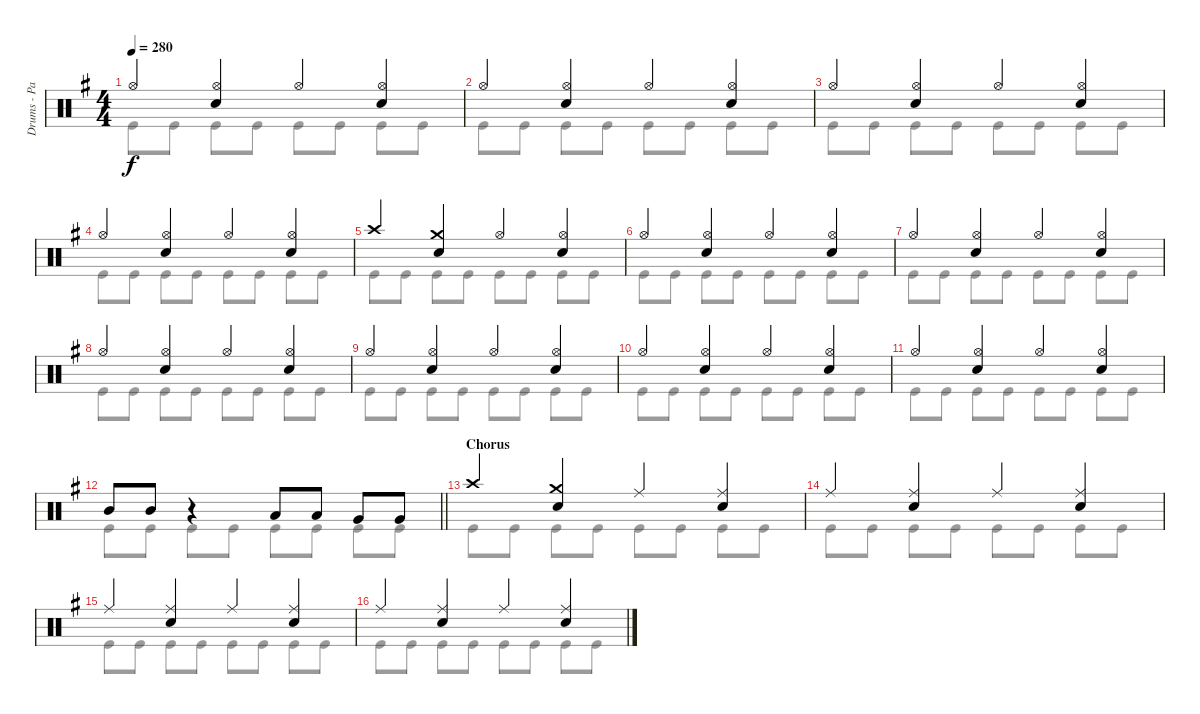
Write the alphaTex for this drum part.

\track ("Drums - Patrick Johansson" "Drums - Pa") {instrument percussion}
\staff {score}
\articulation defaults
\voice
\ts (4 4)
\tempo 280
\clef neutral
\ks eminor "Hi-Hat (open)".4{dy f}
("Hi-Hat (open)" "Snare (hit) 2").4 "Hi-Hat (open)".4 ("Hi-Hat (open)" "Snare (hit) 2").4 |
"Hi-Hat (open)".4 ("Hi-Hat (open)" "Snare (hit) 2").4 "Hi-Hat (open)".4 ("Hi-Hat (open)" "Snare (hit) 2").4 |
"Hi-Hat (open)".4 ("Hi-Hat (open)" "Snare (hit) 2").4 "Hi-Hat (open)".4 ("Hi-Hat (open)" "Snare (hit) 2").4 |
"Hi-Hat (open)".4 ("Hi-Hat (open)" "Snare (hit) 2").4 "Hi-Hat (open)".4 ("Hi-Hat (open)" "Snare (hit) 2").4 |
"Crash high (hit)".4 ("Crash medium (hit)" "Snare (hit) 2").4 "Hi-Hat (open)".4 ("Hi-Hat (open)" "Snare (hit) 2").4 |
"Hi-Hat (open)".4 ("Hi-Hat (open)" "Snare (hit) 2").4 "Hi-Hat (open)".4 ("Hi-Hat (open)" "Snare (hit) 2").4 |
"Hi-Hat (open)".4 ("Hi-Hat (open)" "Snare (hit) 2").4 "Hi-Hat (open)".4 ("Hi-Hat (open)" "Snare (hit) 2").4 |
"Hi-Hat (open)".4 ("Hi-Hat (open)" "Snare (hit) 2").4 "Hi-Hat (open)".4 ("Hi-Hat (open)" "Snare (hit) 2").4 |
"Hi-Hat (open)".4 ("Hi-Hat (open)" "Snare (hit) 2").4 "Hi-Hat (open)".4 ("Hi-Hat (open)" "Snare (hit) 2").4 |
"Hi-Hat (open)".4 ("Hi-Hat (open)" "Snare (hit) 2").4 "Hi-Hat (open)".4 ("Hi-Hat (open)" "Snare (hit) 2").4 |
"Hi-Hat (open)".4 ("Hi-Hat (open)" "Snare (hit) 2").4 "Hi-Hat (open)".4 ("Hi-Hat (open)" "Snare (hit) 2").4 |
\barLineRight lightlight "Mid Tom (hit)".8 "Mid Tom (hit)".8
r.4 "Low Tom (hit)".8 "Low Tom (hit)".8 "Very Low Tom (hit)".8 "Very Low Tom (hit)".8 |
\section ("" "Chorus")
"Crash high (hit)".4 ("Crash medium (hit)" "Snare (hit) 2").4 "Ride (middle)".4 ("Ride (middle)" "Snare (hit) 2").4 |
"Ride (middle)".4 ("Ride (middle)" "Snare (hit) 2").4 "Ride (middle)".4 ("Ride (middle)" "Snare (hit) 2").4 |
"Ride (middle)".4 ("Ride (middle)" "Snare (hit) 2").4 "Ride (middle)".4 ("Ride (middle)" "Snare (hit) 2").4 |
"Ride (middle)".4 ("Ride (middle)" "Snare (hit) 2").4 "Ride (middle)".4 ("Ride (middle)" "Snare (hit) 2").4
\voice
\clef neutral
\ottava regular
\simile none
\ks eminor "Kick (hit)".8{dy f} "Kick (hit)".8 "Kick (hit)".8 "Kick (hit)".8 "Kick (hit)".8 "Kick (hit)".8 "Kick (hit)".8 "Kick (hit)".8
|
"Kick (hit)".8 "Kick (hit)".8 "Kick (hit)".8 "Kick (hit)".8 "Kick (hit)".8 "Kick (hit)".8 "Kick (hit)".8 "Kick (hit)".8 |
"Kick (hit)".8 "Kick (hit)".8 "Kick (hit)".8 "Kick (hit)".8 "Kick (hit)".8 "Kick (hit)".8 "Kick (hit)".8 "Kick (hit)".8 |
"Kick (hit)".8 "Kick (hit)".8 "Kick (hit)".8 "Kick (hit)".8 "Kick (hit)".8 "Kick (hit)".8 "Kick (hit)".8 "Kick (hit)".8 |
"Kick (hit)".8 "Kick (hit)".8 "Kick (hit)".8 "Kick (hit)".8 "Kick (hit)".8 "Kick (hit)".8 "Kick (hit)".8 "Kick (hit)".8 |
"Kick (hit)".8 "Kick (hit)".8 "Kick (hit)".8 "Kick (hit)".8 "Kick (hit)".8 "Kick (hit)".8 "Kick (hit)".8 "Kick (hit)".8 |
"Kick (hit)".8 "Kick (hit)".8 "Kick (hit)".8 "Kick (hit)".8 "Kick (hit)".8 "Kick (hit)".8 "Kick (hit)".8 "Kick (hit)".8 |
"Kick (hit)".8 "Kick (hit)".8 "Kick (hit)".8 "Kick (hit)".8 "Kick (hit)".8 "Kick (hit)".8 "Kick (hit)".8 "Kick (hit)".8 |
"Kick (hit)".8 "Kick (hit)".8 "Kick (hit)".8 "Kick (hit)".8 "Kick (hit)".8 "Kick (hit)".8 "Kick (hit)".8 "Kick (hit)".8 |
"Kick (hit)".8 "Kick (hit)".8 "Kick (hit)".8 "Kick (hit)".8 "Kick (hit)".8 "Kick (hit)".8 "Kick (hit)".8 "Kick (hit)".8 |
"Kick (hit)".8 "Kick (hit)".8 "Kick (hit)".8 "Kick (hit)".8 "Kick (hit)".8 "Kick (hit)".8 "Kick (hit)".8 "Kick (hit)".8 |
\barLineRight lightlight "Kick (hit)".8 "Kick (hit)".8 "Kick (hit)".8 "Kick (hit)".8 "Kick (hit)".8 "Kick (hit)".8 "Kick (hit)".8 "Kick (hit)".8
|
"Kick (hit)".8 "Kick (hit)".8 "Kick (hit)".8 "Kick (hit)".8 "Kick (hit)".8 "Kick (hit)".8 "Kick (hit)".8 "Kick (hit)".8 |
"Kick (hit)".8 "Kick (hit)".8 "Kick (hit)".8 "Kick (hit)".8 "Kick (hit)".8 "Kick (hit)".8 "Kick (hit)".8 "Kick (hit)".8 |
"Kick (hit)".8 "Kick (hit)".8 "Kick (hit)".8 "Kick (hit)".8 "Kick (hit)".8 "Kick (hit)".8 "Kick (hit)".8 "Kick (hit)".8 |
"Kick (hit)".8 "Kick (hit)".8 "Kick (hit)".8 "Kick (hit)".8 "Kick (hit)".8 "Kick (hit)".8 "Kick (hit)".8 "Kick (hit)".8
